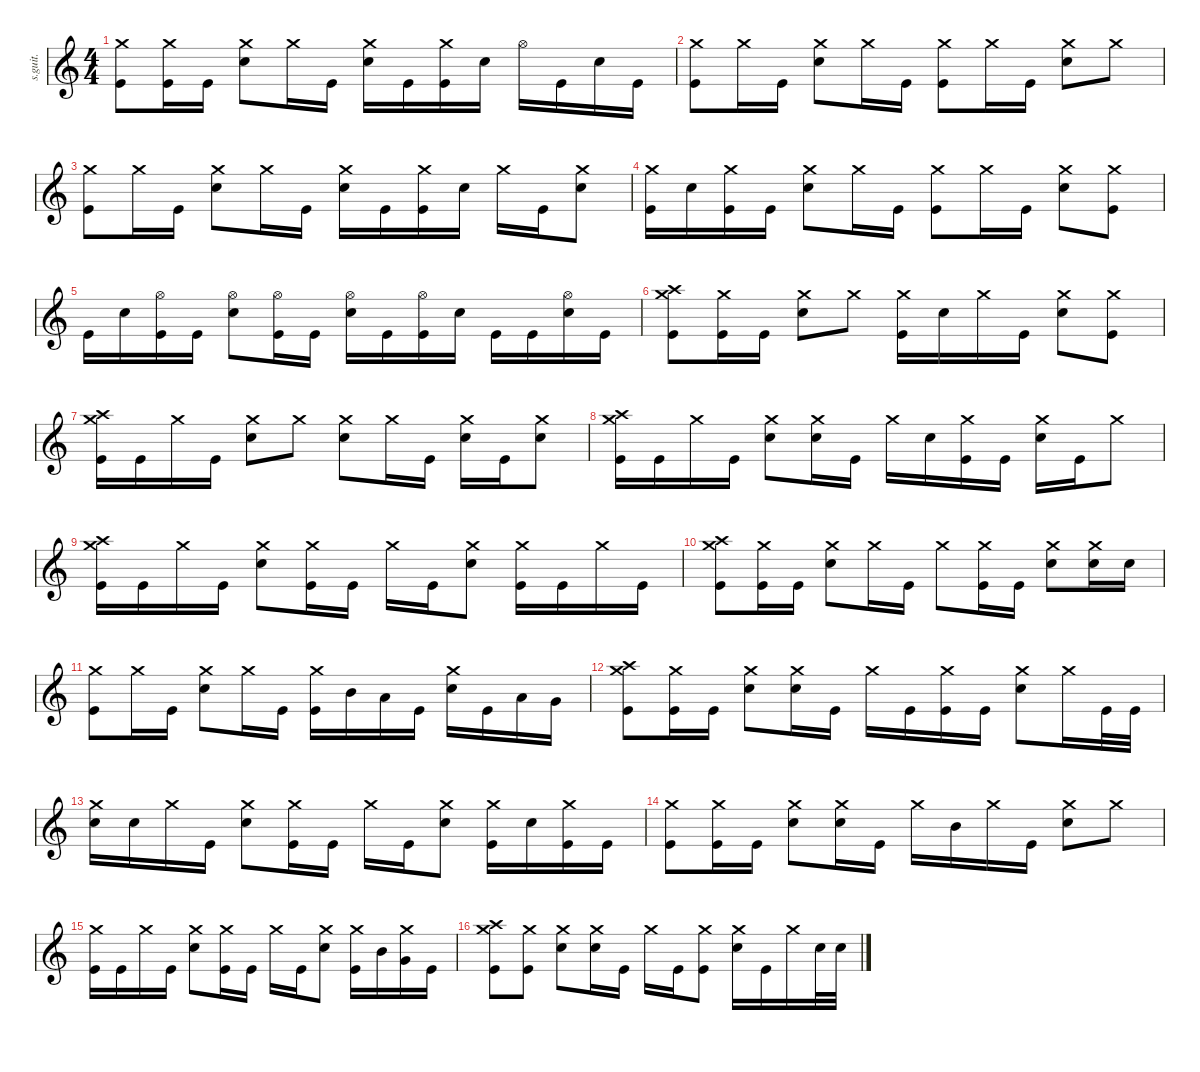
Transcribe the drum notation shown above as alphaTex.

\defaultSystemsLayout 4
\hideDynamics
\bracketExtendMode nobrackets
\track ("Abe Cunningham" "s.guit.") {instrument percussion}
\staff {score}
\articulation defaults
\ts (4 4)
\tempo (93 hide)
\clef g2
\ks c
("Crash medium (hit)" "Kick (hit)").8{lyrics (0 "") lyrics (1 "") lyrics (2 "") lyrics (3 "") lyrics (4 "") dy fff} ("Crash medium (hit)" "Kick (hit)").16{lyrics (0 "") lyrics (1 "") lyrics (2 "") lyrics (3 "") lyrics (4 "")} "Kick (hit)".16{lyrics (0 "") lyrics (1 "") lyrics (2 "") lyrics (3 "") lyrics (4 "")} ("Snare (hit) 2" "Crash medium (hit)").8{lyrics (0 "") lyrics (1 "") lyrics (2 "") lyrics (3 "") lyrics (4 "")} "Crash medium (hit)".16{lyrics (0 "") lyrics (1 "") lyrics (2 "") lyrics (3 "") lyrics (4 "")} "Kick (hit)".16{lyrics (0 "") lyrics (1 "") lyrics (2 "") lyrics (3 "") lyrics (4 "")} ("Crash medium (hit)" "Snare (hit) 2").16{lyrics (0 "") lyrics (1 "") lyrics (2 "") lyrics (3 "") lyrics (4 "")} "Kick (hit)".16{lyrics (0 "") lyrics (1 "") lyrics (2 "") lyrics (3 "") lyrics (4 "")} ("Crash medium (hit)" "Kick (hit)").16{lyrics (0 "") lyrics (1 "") lyrics (2 "") lyrics (3 "") lyrics (4 "")} "Snare (hit) 2".16{lyrics (0 "") lyrics (1 "") lyrics (2 "") lyrics (3 "") lyrics (4 "")} "Hi-Hat (open)".16{lyrics (0 "") lyrics (1 "") lyrics (2 "") lyrics (3 "") lyrics (4 "")} "Kick (hit)".16{lyrics (0 "") lyrics (1 "") lyrics (2 "") lyrics (3 "") lyrics (4 "")} "Snare (hit) 2".16{lyrics (0 "") lyrics (1 "") lyrics (2 "") lyrics (3 "") lyrics (4 "")} "Kick (hit)".16{lyrics (0 "") lyrics (1 "") lyrics (2 "") lyrics (3 "") lyrics (4 "")} |
("Kick (hit)" "Crash medium (hit)").8{lyrics (0 "") lyrics (1 "") lyrics (2 "") lyrics (3 "") lyrics (4 "")} "Crash medium (hit)".16{lyrics (0 "") lyrics (1 "") lyrics (2 "") lyrics (3 "") lyrics (4 "")} "Kick (hit)".16{lyrics (0 "") lyrics (1 "") lyrics (2 "") lyrics (3 "") lyrics (4 "")} ("Snare (hit) 2" "Crash medium (hit)").8{lyrics (0 "") lyrics (1 "") lyrics (2 "") lyrics (3 "") lyrics (4 "")} "Crash medium (hit)".16{lyrics (0 "") lyrics (1 "") lyrics (2 "") lyrics (3 "") lyrics (4 "")} "Kick (hit)".16{lyrics (0 "") lyrics (1 "") lyrics (2 "") lyrics (3 "") lyrics (4 "")} ("Kick (hit)" "Crash medium (hit)").8{lyrics (0 "") lyrics (1 "") lyrics (2 "") lyrics (3 "") lyrics (4 "")} "Crash medium (hit)".16{lyrics (0 "") lyrics (1 "") lyrics (2 "") lyrics (3 "") lyrics (4 "")} "Kick (hit)".16{lyrics (0 "") lyrics (1 "") lyrics (2 "") lyrics (3 "") lyrics (4 "")} ("Snare (hit) 2" "Crash medium (hit)").8{lyrics (0 "") lyrics (1 "") lyrics (2 "") lyrics (3 "") lyrics (4 "")} "Crash medium (hit)".8{lyrics (0 "") lyrics (1 "") lyrics (2 "") lyrics (3 "") lyrics (4 "")} |
("Kick (hit)" "Crash medium (hit)").8{lyrics (0 "") lyrics (1 "") lyrics (2 "") lyrics (3 "") lyrics (4 "")} "Crash medium (hit)".16{lyrics (0 "") lyrics (1 "") lyrics (2 "") lyrics (3 "") lyrics (4 "")} "Kick (hit)".16{lyrics (0 "") lyrics (1 "") lyrics (2 "") lyrics (3 "") lyrics (4 "")} ("Snare (hit) 2" "Crash medium (hit)").8{lyrics (0 "") lyrics (1 "") lyrics (2 "") lyrics (3 "") lyrics (4 "")} "Crash medium (hit)".16{lyrics (0 "") lyrics (1 "") lyrics (2 "") lyrics (3 "") lyrics (4 "")} "Kick (hit)".16{lyrics (0 "") lyrics (1 "") lyrics (2 "") lyrics (3 "") lyrics (4 "")} ("Crash medium (hit)" "Snare (hit) 2").16{lyrics (0 "") lyrics (1 "") lyrics (2 "") lyrics (3 "") lyrics (4 "")} "Kick (hit)".16{lyrics (0 "") lyrics (1 "") lyrics (2 "") lyrics (3 "") lyrics (4 "")} ("Crash medium (hit)" "Kick (hit)").16{lyrics (0 "") lyrics (1 "") lyrics (2 "") lyrics (3 "") lyrics (4 "")} "Snare (hit) 2".16{lyrics (0 "") lyrics (1 "") lyrics (2 "") lyrics (3 "") lyrics (4 "")} "Crash medium (hit)".16{lyrics (0 "") lyrics (1 "") lyrics (2 "") lyrics (3 "") lyrics (4 "")} "Kick (hit)".16{lyrics (0 "") lyrics (1 "") lyrics (2 "") lyrics (3 "") lyrics (4 "")} ("Crash medium (hit)" "Snare (hit) 2").8{lyrics (0 "") lyrics (1 "") lyrics (2 "") lyrics (3 "") lyrics (4 "")} |
("Kick (hit)" "Crash medium (hit)").16{lyrics (0 "") lyrics (1 "") lyrics (2 "") lyrics (3 "") lyrics (4 "")} "Snare (hit) 2".16{lyrics (0 "") lyrics (1 "") lyrics (2 "") lyrics (3 "") lyrics (4 "")} ("Crash medium (hit)" "Kick (hit)").16{lyrics (0 "") lyrics (1 "") lyrics (2 "") lyrics (3 "") lyrics (4 "")} "Kick (hit)".16{lyrics (0 "") lyrics (1 "") lyrics (2 "") lyrics (3 "") lyrics (4 "")} ("Snare (hit) 2" "Crash medium (hit)").8{lyrics (0 "") lyrics (1 "") lyrics (2 "") lyrics (3 "") lyrics (4 "")} "Crash medium (hit)".16{lyrics (0 "") lyrics (1 "") lyrics (2 "") lyrics (3 "") lyrics (4 "")} "Kick (hit)".16{lyrics (0 "") lyrics (1 "") lyrics (2 "") lyrics (3 "") lyrics (4 "")} ("Kick (hit)" "Crash medium (hit)").8{lyrics (0 "") lyrics (1 "") lyrics (2 "") lyrics (3 "") lyrics (4 "")} "Crash medium (hit)".16{lyrics (0 "") lyrics (1 "") lyrics (2 "") lyrics (3 "") lyrics (4 "")} "Kick (hit)".16{lyrics (0 "") lyrics (1 "") lyrics (2 "") lyrics (3 "") lyrics (4 "")} ("Snare (hit) 2" "Crash medium (hit)").8{lyrics (0 "") lyrics (1 "") lyrics (2 "") lyrics (3 "") lyrics (4 "")} ("Crash medium (hit)" "Kick (hit)").8{lyrics (0 "") lyrics (1 "") lyrics (2 "") lyrics (3 "") lyrics (4 "")} |
"Kick (hit)".16{lyrics (0 "") lyrics (1 "") lyrics (2 "") lyrics (3 "") lyrics (4 "")} "Snare (hit) 2".16{lyrics (0 "") lyrics (1 "") lyrics (2 "") lyrics (3 "") lyrics (4 "")} ("Kick (hit)" "Hi-Hat (open)").16{lyrics (0 "") lyrics (1 "") lyrics (2 "") lyrics (3 "") lyrics (4 "")} "Kick (hit)".16{lyrics (0 "") lyrics (1 "") lyrics (2 "") lyrics (3 "") lyrics (4 "")} ("Snare (hit) 2" "Hi-Hat (open)").8{lyrics (0 "") lyrics (1 "") lyrics (2 "") lyrics (3 "") lyrics (4 "")} ("Kick (hit)" "Hi-Hat (open)").16{lyrics (0 "") lyrics (1 "") lyrics (2 "") lyrics (3 "") lyrics (4 "")} "Kick (hit)".16{lyrics (0 "") lyrics (1 "") lyrics (2 "") lyrics (3 "") lyrics (4 "")} ("Snare (hit) 2" "Hi-Hat (open)").16{lyrics (0 "") lyrics (1 "") lyrics (2 "") lyrics (3 "") lyrics (4 "")} "Kick (hit)".16{lyrics (0 "") lyrics (1 "") lyrics (2 "") lyrics (3 "") lyrics (4 "")} ("Kick (hit)" "Hi-Hat (open)").16{lyrics (0 "") lyrics (1 "") lyrics (2 "") lyrics (3 "") lyrics (4 "")} "Snare (hit) 2".16{lyrics (0 "") lyrics (1 "") lyrics (2 "") lyrics (3 "") lyrics (4 "")} "Kick (hit)".16{lyrics (0 "") lyrics (1 "") lyrics (2 "") lyrics (3 "") lyrics (4 "")} "Kick (hit)".16{lyrics (0 "") lyrics (1 "") lyrics (2 "") lyrics (3 "") lyrics (4 "")} ("Snare (hit) 2" "Hi-Hat (open)").16{lyrics (0 "") lyrics (1 "") lyrics (2 "") lyrics (3 "") lyrics (4 "")} "Kick (hit)".16{lyrics (0 "") lyrics (1 "") lyrics (2 "") lyrics (3 "") lyrics (4 "")} |
("Kick (hit)" "Crash high (hit)" "Crash medium (hit)").8{lyrics (0 "") lyrics (1 "") lyrics (2 "") lyrics (3 "") lyrics (4 "")} ("Crash medium (hit)" "Kick (hit)").16{lyrics (0 "") lyrics (1 "") lyrics (2 "") lyrics (3 "") lyrics (4 "")} "Kick (hit)".16{lyrics (0 "") lyrics (1 "") lyrics (2 "") lyrics (3 "") lyrics (4 "")} ("Snare (hit) 2" "Crash medium (hit)").8{lyrics (0 "") lyrics (1 "") lyrics (2 "") lyrics (3 "") lyrics (4 "")} "Crash medium (hit)".8{lyrics (0 "") lyrics (1 "") lyrics (2 "") lyrics (3 "") lyrics (4 "")} ("Crash medium (hit)" "Kick (hit)").16{lyrics (0 "") lyrics (1 "") lyrics (2 "") lyrics (3 "") lyrics (4 "")} "Snare (hit) 2".16{lyrics (0 "") lyrics (1 "") lyrics (2 "") lyrics (3 "") lyrics (4 "")} "Crash medium (hit)".16{lyrics (0 "") lyrics (1 "") lyrics (2 "") lyrics (3 "") lyrics (4 "")} "Kick (hit)".16{lyrics (0 "") lyrics (1 "") lyrics (2 "") lyrics (3 "") lyrics (4 "")} ("Crash medium (hit)" "Snare (hit) 2").8{lyrics (0 "") lyrics (1 "") lyrics (2 "") lyrics (3 "") lyrics (4 "")} ("Crash medium (hit)" "Kick (hit)").8{lyrics (0 "") lyrics (1 "") lyrics (2 "") lyrics (3 "") lyrics (4 "")} |
("Kick (hit)" "Crash high (hit)" "Crash medium (hit)").16{lyrics (0 "") lyrics (1 "") lyrics (2 "") lyrics (3 "") lyrics (4 "")} "Kick (hit)".16{lyrics (0 "") lyrics (1 "") lyrics (2 "") lyrics (3 "") lyrics (4 "")} "Crash medium (hit)".16{lyrics (0 "") lyrics (1 "") lyrics (2 "") lyrics (3 "") lyrics (4 "")} "Kick (hit)".16{lyrics (0 "") lyrics (1 "") lyrics (2 "") lyrics (3 "") lyrics (4 "")} ("Snare (hit) 2" "Crash medium (hit)").8{lyrics (0 "") lyrics (1 "") lyrics (2 "") lyrics (3 "") lyrics (4 "")} "Crash medium (hit)".8{lyrics (0 "") lyrics (1 "") lyrics (2 "") lyrics (3 "") lyrics (4 "")} ("Crash medium (hit)" "Snare (hit) 2").8{lyrics (0 "") lyrics (1 "") lyrics (2 "") lyrics (3 "") lyrics (4 "")} "Crash medium (hit)".16{lyrics (0 "") lyrics (1 "") lyrics (2 "") lyrics (3 "") lyrics (4 "")} "Kick (hit)".16{lyrics (0 "") lyrics (1 "") lyrics (2 "") lyrics (3 "") lyrics (4 "")} ("Crash medium (hit)" "Snare (hit) 2").16{lyrics (0 "") lyrics (1 "") lyrics (2 "") lyrics (3 "") lyrics (4 "")} "Kick (hit)".16{lyrics (0 "") lyrics (1 "") lyrics (2 "") lyrics (3 "") lyrics (4 "")} ("Crash medium (hit)" "Snare (hit) 2").8{lyrics (0 "") lyrics (1 "") lyrics (2 "") lyrics (3 "") lyrics (4 "")} |
("Kick (hit)" "Crash high (hit)" "Crash medium (hit)").16{lyrics (0 "") lyrics (1 "") lyrics (2 "") lyrics (3 "") lyrics (4 "")} "Kick (hit)".16{lyrics (0 "") lyrics (1 "") lyrics (2 "") lyrics (3 "") lyrics (4 "")} "Crash medium (hit)".16{lyrics (0 "") lyrics (1 "") lyrics (2 "") lyrics (3 "") lyrics (4 "")} "Kick (hit)".16{lyrics (0 "") lyrics (1 "") lyrics (2 "") lyrics (3 "") lyrics (4 "")} ("Crash medium (hit)" "Snare (hit) 2").8{lyrics (0 "") lyrics (1 "") lyrics (2 "") lyrics (3 "") lyrics (4 "")} ("Crash medium (hit)" "Snare (hit) 2").16{lyrics (0 "") lyrics (1 "") lyrics (2 "") lyrics (3 "") lyrics (4 "")} "Kick (hit)".16{lyrics (0 "") lyrics (1 "") lyrics (2 "") lyrics (3 "") lyrics (4 "")} "Crash medium (hit)".16{lyrics (0 "") lyrics (1 "") lyrics (2 "") lyrics (3 "") lyrics (4 "")} "Snare (hit) 2".16{lyrics (0 "") lyrics (1 "") lyrics (2 "") lyrics (3 "") lyrics (4 "")} ("Crash medium (hit)" "Kick (hit)").16{lyrics (0 "") lyrics (1 "") lyrics (2 "") lyrics (3 "") lyrics (4 "")} "Kick (hit)".16{lyrics (0 "") lyrics (1 "") lyrics (2 "") lyrics (3 "") lyrics (4 "")} ("Crash medium (hit)" "Snare (hit) 2").16{lyrics (0 "") lyrics (1 "") lyrics (2 "") lyrics (3 "") lyrics (4 "")} "Kick (hit)".16{lyrics (0 "") lyrics (1 "") lyrics (2 "") lyrics (3 "") lyrics (4 "")} "Crash medium (hit)".8{lyrics (0 "") lyrics (1 "") lyrics (2 "") lyrics (3 "") lyrics (4 "")} |
("Crash medium (hit)" "Kick (hit)" "Crash high (hit)").16{lyrics (0 "") lyrics (1 "") lyrics (2 "") lyrics (3 "") lyrics (4 "")} "Kick (hit)".16{lyrics (0 "") lyrics (1 "") lyrics (2 "") lyrics (3 "") lyrics (4 "")} "Crash medium (hit)".16{lyrics (0 "") lyrics (1 "") lyrics (2 "") lyrics (3 "") lyrics (4 "")} "Kick (hit)".16{lyrics (0 "") lyrics (1 "") lyrics (2 "") lyrics (3 "") lyrics (4 "")} ("Snare (hit) 2" "Crash medium (hit)").8{lyrics (0 "") lyrics (1 "") lyrics (2 "") lyrics (3 "") lyrics (4 "")} ("Kick (hit)" "Crash medium (hit)").16{lyrics (0 "") lyrics (1 "") lyrics (2 "") lyrics (3 "") lyrics (4 "")} "Kick (hit)".16{lyrics (0 "") lyrics (1 "") lyrics (2 "") lyrics (3 "") lyrics (4 "")} "Crash medium (hit)".16{lyrics (0 "") lyrics (1 "") lyrics (2 "") lyrics (3 "") lyrics (4 "")} "Kick (hit)".16{lyrics (0 "") lyrics (1 "") lyrics (2 "") lyrics (3 "") lyrics (4 "")} ("Snare (hit) 2" "Crash medium (hit)").8{lyrics (0 "") lyrics (1 "") lyrics (2 "") lyrics (3 "") lyrics (4 "")} ("Crash medium (hit)" "Kick (hit)").16{lyrics (0 "") lyrics (1 "") lyrics (2 "") lyrics (3 "") lyrics (4 "")} "Kick (hit)".16{lyrics (0 "") lyrics (1 "") lyrics (2 "") lyrics (3 "") lyrics (4 "")} "Crash medium (hit)".16{lyrics (0 "") lyrics (1 "") lyrics (2 "") lyrics (3 "") lyrics (4 "")} "Kick (hit)".16{lyrics (0 "") lyrics (1 "") lyrics (2 "") lyrics (3 "") lyrics (4 "")} |
("Kick (hit)" "Crash high (hit)" "Crash medium (hit)").8{lyrics (0 "") lyrics (1 "") lyrics (2 "") lyrics (3 "") lyrics (4 "")} ("Crash medium (hit)" "Kick (hit)").16{lyrics (0 "") lyrics (1 "") lyrics (2 "") lyrics (3 "") lyrics (4 "")} "Kick (hit)".16{lyrics (0 "") lyrics (1 "") lyrics (2 "") lyrics (3 "") lyrics (4 "")} ("Snare (hit) 2" "Crash medium (hit)").8{lyrics (0 "") lyrics (1 "") lyrics (2 "") lyrics (3 "") lyrics (4 "")} "Crash medium (hit)".16{lyrics (0 "") lyrics (1 "") lyrics (2 "") lyrics (3 "") lyrics (4 "")} "Kick (hit)".16{lyrics (0 "") lyrics (1 "") lyrics (2 "") lyrics (3 "") lyrics (4 "")} "Crash medium (hit)".8{lyrics (0 "") lyrics (1 "") lyrics (2 "") lyrics (3 "") lyrics (4 "")} ("Crash medium (hit)" "Kick (hit)").16{lyrics (0 "") lyrics (1 "") lyrics (2 "") lyrics (3 "") lyrics (4 "")} "Kick (hit)".16{lyrics (0 "") lyrics (1 "") lyrics (2 "") lyrics (3 "") lyrics (4 "")} ("Crash medium (hit)" "Snare (hit) 2").8{lyrics (0 "") lyrics (1 "") lyrics (2 "") lyrics (3 "") lyrics (4 "")} ("Crash medium (hit)" "Snare (hit) 2").16{lyrics (0 "") lyrics (1 "") lyrics (2 "") lyrics (3 "") lyrics (4 "")} "Snare (hit) 2".16{lyrics (0 "") lyrics (1 "") lyrics (2 "") lyrics (3 "") lyrics (4 "")} |
("Kick (hit)" "Crash medium (hit)").8{lyrics (0 "") lyrics (1 "") lyrics (2 "") lyrics (3 "") lyrics (4 "")} "Crash medium (hit)".16{lyrics (0 "") lyrics (1 "") lyrics (2 "") lyrics (3 "") lyrics (4 "")} "Kick (hit)".16{lyrics (0 "") lyrics (1 "") lyrics (2 "") lyrics (3 "") lyrics (4 "")} ("Crash medium (hit)" "Snare (hit) 2").8{lyrics (0 "") lyrics (1 "") lyrics (2 "") lyrics (3 "") lyrics (4 "")} "Crash medium (hit)".16{lyrics (0 "") lyrics (1 "") lyrics (2 "") lyrics (3 "") lyrics (4 "")} "Kick (hit)".16{lyrics (0 "") lyrics (1 "") lyrics (2 "") lyrics (3 "") lyrics (4 "")} ("Crash medium (hit)" "Kick (hit)").16{lyrics (0 "") lyrics (1 "") lyrics (2 "") lyrics (3 "") lyrics (4 "")} "Mid Tom (hit)".16{lyrics (0 "") lyrics (1 "") lyrics (2 "") lyrics (3 "") lyrics (4 "")} "Low Tom (hit)".16{lyrics (0 "") lyrics (1 "") lyrics (2 "") lyrics (3 "") lyrics (4 "")} "Kick (hit)".16{lyrics (0 "") lyrics (1 "") lyrics (2 "") lyrics (3 "") lyrics (4 "")} ("Crash medium (hit)" "Snare (hit) 2").16{lyrics (0 "") lyrics (1 "") lyrics (2 "") lyrics (3 "") lyrics (4 "")} "Kick (hit)".16{lyrics (0 "") lyrics (1 "") lyrics (2 "") lyrics (3 "") lyrics (4 "")} "Low Tom (hit)".16{lyrics (0 "") lyrics (1 "") lyrics (2 "") lyrics (3 "") lyrics (4 "")} "Very Low Tom (hit)".16{lyrics (0 "") lyrics (1 "") lyrics (2 "") lyrics (3 "") lyrics (4 "")} |
("Kick (hit)" "Crash medium (hit)" "Crash high (hit)").8{lyrics (0 "") lyrics (1 "") lyrics (2 "") lyrics (3 "") lyrics (4 "")} ("Crash medium (hit)" "Kick (hit)").16{lyrics (0 "") lyrics (1 "") lyrics (2 "") lyrics (3 "") lyrics (4 "")} "Kick (hit)".16{lyrics (0 "") lyrics (1 "") lyrics (2 "") lyrics (3 "") lyrics (4 "")} ("Snare (hit) 2" "Crash medium (hit)").8{lyrics (0 "") lyrics (1 "") lyrics (2 "") lyrics (3 "") lyrics (4 "")} ("Crash medium (hit)" "Snare (hit) 2").16{lyrics (0 "") lyrics (1 "") lyrics (2 "") lyrics (3 "") lyrics (4 "")} "Kick (hit)".16{lyrics (0 "") lyrics (1 "") lyrics (2 "") lyrics (3 "") lyrics (4 "")} "Crash medium (hit)".16{lyrics (0 "") lyrics (1 "") lyrics (2 "") lyrics (3 "") lyrics (4 "")} "Kick (hit)".16{lyrics (0 "") lyrics (1 "") lyrics (2 "") lyrics (3 "") lyrics (4 "")} ("Crash medium (hit)" "Kick (hit)").16{lyrics (0 "") lyrics (1 "") lyrics (2 "") lyrics (3 "") lyrics (4 "")} "Kick (hit)".16{lyrics (0 "") lyrics (1 "") lyrics (2 "") lyrics (3 "") lyrics (4 "")} ("Crash medium (hit)" "Snare (hit) 2").8{lyrics (0 "") lyrics (1 "") lyrics (2 "") lyrics (3 "") lyrics (4 "")} "Crash medium (hit)".16{lyrics (0 "") lyrics (1 "") lyrics (2 "") lyrics (3 "") lyrics (4 "")} "Kick (hit)".32{lyrics (0 "") lyrics (1 "") lyrics (2 "") lyrics (3 "") lyrics (4 "")} "Kick (hit)".32{lyrics (0 "") lyrics (1 "") lyrics (2 "") lyrics (3 "") lyrics (4 "")} |
("Snare (hit) 2" "Crash medium (hit)").16{lyrics (0 "") lyrics (1 "") lyrics (2 "") lyrics (3 "") lyrics (4 "")} "Snare (hit) 2".16{lyrics (0 "") lyrics (1 "") lyrics (2 "") lyrics (3 "") lyrics (4 "")} "Crash medium (hit)".16{lyrics (0 "") lyrics (1 "") lyrics (2 "") lyrics (3 "") lyrics (4 "")} "Kick (hit)".16{lyrics (0 "") lyrics (1 "") lyrics (2 "") lyrics (3 "") lyrics (4 "")} ("Crash medium (hit)" "Snare (hit) 2").8{lyrics (0 "") lyrics (1 "") lyrics (2 "") lyrics (3 "") lyrics (4 "")} ("Crash medium (hit)" "Kick (hit)").16{lyrics (0 "") lyrics (1 "") lyrics (2 "") lyrics (3 "") lyrics (4 "")} "Kick (hit)".16{lyrics (0 "") lyrics (1 "") lyrics (2 "") lyrics (3 "") lyrics (4 "")} "Crash medium (hit)".16{lyrics (0 "") lyrics (1 "") lyrics (2 "") lyrics (3 "") lyrics (4 "")} "Kick (hit)".16{lyrics (0 "") lyrics (1 "") lyrics (2 "") lyrics (3 "") lyrics (4 "")} ("Crash medium (hit)" "Snare (hit) 2").8{lyrics (0 "") lyrics (1 "") lyrics (2 "") lyrics (3 "") lyrics (4 "")} ("Crash medium (hit)" "Kick (hit)").16{lyrics (0 "") lyrics (1 "") lyrics (2 "") lyrics (3 "") lyrics (4 "")} "Snare (hit) 2".16{lyrics (0 "") lyrics (1 "") lyrics (2 "") lyrics (3 "") lyrics (4 "")} ("Crash medium (hit)" "Kick (hit)").16{lyrics (0 "") lyrics (1 "") lyrics (2 "") lyrics (3 "") lyrics (4 "")} "Kick (hit)".16{lyrics (0 "") lyrics (1 "") lyrics (2 "") lyrics (3 "") lyrics (4 "")} |
("Kick (hit)" "Crash medium (hit)").8{lyrics (0 "") lyrics (1 "") lyrics (2 "") lyrics (3 "") lyrics (4 "")} ("Crash medium (hit)" "Kick (hit)").16{lyrics (0 "") lyrics (1 "") lyrics (2 "") lyrics (3 "") lyrics (4 "")} "Kick (hit)".16{lyrics (0 "") lyrics (1 "") lyrics (2 "") lyrics (3 "") lyrics (4 "")} ("Snare (hit) 2" "Crash medium (hit)").8{lyrics (0 "") lyrics (1 "") lyrics (2 "") lyrics (3 "") lyrics (4 "")} ("Crash medium (hit)" "Snare (hit) 2").16{lyrics (0 "") lyrics (1 "") lyrics (2 "") lyrics (3 "") lyrics (4 "")} "Kick (hit)".16{lyrics (0 "") lyrics (1 "") lyrics (2 "") lyrics (3 "") lyrics (4 "")} "Crash medium (hit)".16{lyrics (0 "") lyrics (1 "") lyrics (2 "") lyrics (3 "") lyrics (4 "")} "Mid Tom (hit)".16{lyrics (0 "") lyrics (1 "") lyrics (2 "") lyrics (3 "") lyrics (4 "")} "Crash medium (hit)".16{lyrics (0 "") lyrics (1 "") lyrics (2 "") lyrics (3 "") lyrics (4 "")} "Kick (hit)".16{lyrics (0 "") lyrics (1 "") lyrics (2 "") lyrics (3 "") lyrics (4 "")} ("Crash medium (hit)" "Snare (hit) 2").8{lyrics (0 "") lyrics (1 "") lyrics (2 "") lyrics (3 "") lyrics (4 "")} "Crash medium (hit)".8{lyrics (0 "") lyrics (1 "") lyrics (2 "") lyrics (3 "") lyrics (4 "")} |
("Kick (hit)" "Crash medium (hit)").16{lyrics (0 "") lyrics (1 "") lyrics (2 "") lyrics (3 "") lyrics (4 "")} "Kick (hit)".16{lyrics (0 "") lyrics (1 "") lyrics (2 "") lyrics (3 "") lyrics (4 "")} "Crash medium (hit)".16{lyrics (0 "") lyrics (1 "") lyrics (2 "") lyrics (3 "") lyrics (4 "")} "Kick (hit)".16{lyrics (0 "") lyrics (1 "") lyrics (2 "") lyrics (3 "") lyrics (4 "")} ("Snare (hit) 2" "Crash medium (hit)").8{lyrics (0 "") lyrics (1 "") lyrics (2 "") lyrics (3 "") lyrics (4 "")} ("Crash medium (hit)" "Kick (hit)").16{lyrics (0 "") lyrics (1 "") lyrics (2 "") lyrics (3 "") lyrics (4 "")} "Kick (hit)".16{lyrics (0 "") lyrics (1 "") lyrics (2 "") lyrics (3 "") lyrics (4 "")} "Crash medium (hit)".16{lyrics (0 "") lyrics (1 "") lyrics (2 "") lyrics (3 "") lyrics (4 "")} "Kick (hit)".16{lyrics (0 "") lyrics (1 "") lyrics (2 "") lyrics (3 "") lyrics (4 "")} ("Crash medium (hit)" "Snare (hit) 2").8{lyrics (0 "") lyrics (1 "") lyrics (2 "") lyrics (3 "") lyrics (4 "")} ("Crash medium (hit)" "Kick (hit)").16{lyrics (0 "") lyrics (1 "") lyrics (2 "") lyrics (3 "") lyrics (4 "")} "Mid Tom (hit)".16{lyrics (0 "") lyrics (1 "") lyrics (2 "") lyrics (3 "") lyrics (4 "")} ("Crash medium (hit)" "Very Low Tom (hit)").16{lyrics (0 "") lyrics (1 "") lyrics (2 "") lyrics (3 "") lyrics (4 "")} "Kick (hit)".16{lyrics (0 "") lyrics (1 "") lyrics (2 "") lyrics (3 "") lyrics (4 "")} |
("Kick (hit)" "Crash medium (hit)" "Crash high (hit)").8{lyrics (0 "") lyrics (1 "") lyrics (2 "") lyrics (3 "") lyrics (4 "")} ("Crash medium (hit)" "Kick (hit)").8{lyrics (0 "") lyrics (1 "") lyrics (2 "") lyrics (3 "") lyrics (4 "")} ("Snare (hit) 2" "Crash medium (hit)").8{lyrics (0 "") lyrics (1 "") lyrics (2 "") lyrics (3 "") lyrics (4 "")} ("Crash medium (hit)" "Snare (hit) 2").16{lyrics (0 "") lyrics (1 "") lyrics (2 "") lyrics (3 "") lyrics (4 "")} "Kick (hit)".16{lyrics (0 "") lyrics (1 "") lyrics (2 "") lyrics (3 "") lyrics (4 "")} "Crash medium (hit)".16{lyrics (0 "") lyrics (1 "") lyrics (2 "") lyrics (3 "") lyrics (4 "")} "Kick (hit)".16{lyrics (0 "") lyrics (1 "") lyrics (2 "") lyrics (3 "") lyrics (4 "")} ("Crash medium (hit)" "Kick (hit)").8{lyrics (0 "") lyrics (1 "") lyrics (2 "") lyrics (3 "") lyrics (4 "")} ("Crash medium (hit)" "Snare (hit) 2").16{lyrics (0 "") lyrics (1 "") lyrics (2 "") lyrics (3 "") lyrics (4 "")} "Kick (hit)".16{lyrics (0 "") lyrics (1 "") lyrics (2 "") lyrics (3 "") lyrics (4 "")} "Crash medium (hit)".16{lyrics (0 "") lyrics (1 "") lyrics (2 "") lyrics (3 "") lyrics (4 "")} "Snare (hit) 2".32{lyrics (0 "") lyrics (1 "") lyrics (2 "") lyrics (3 "") lyrics (4 "")} "Snare (hit) 2".32{lyrics (0 "") lyrics (1 "") lyrics (2 "") lyrics (3 "") lyrics (4 "")}
